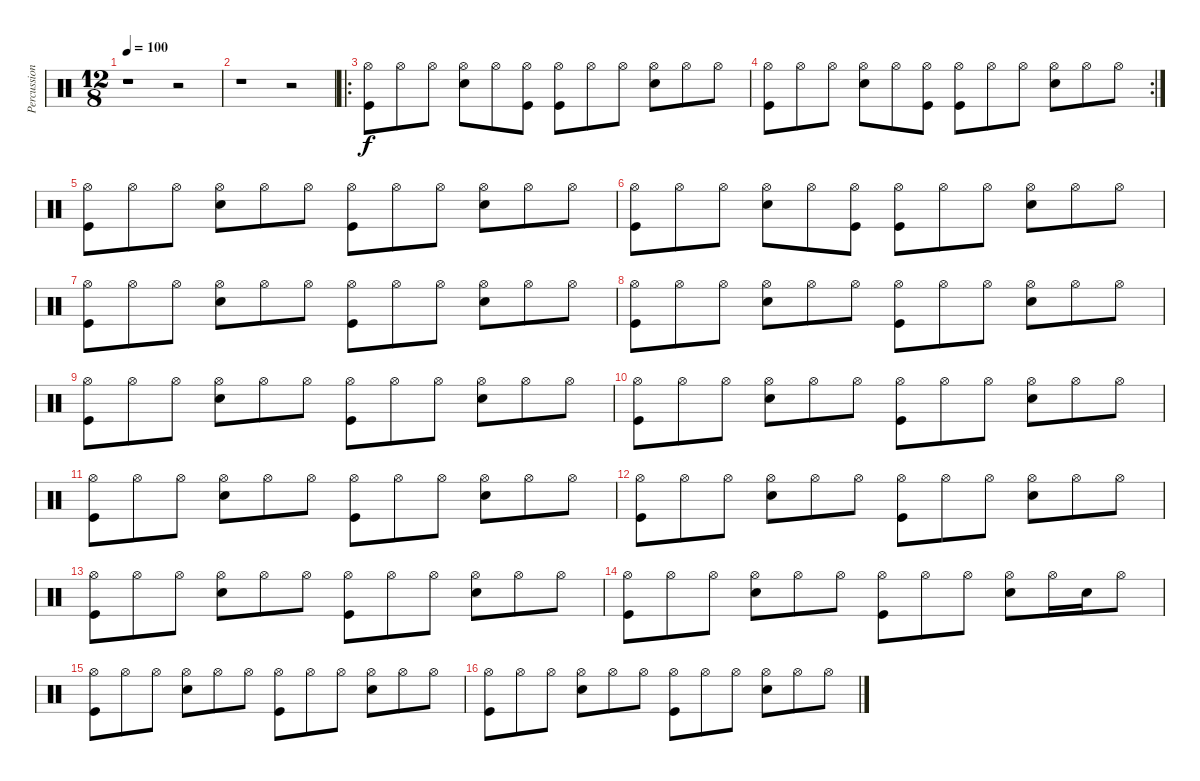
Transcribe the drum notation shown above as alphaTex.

\track ("Percussion" "Percussion") {instrument percussion}
\staff {score}
\articulation defaults
\ts (12 8)
\tempo 100
\clef neutral
\ks c
r.1{dy f} r.2 |
r.1 r.2 |
\ro
("Hi-Hat (open)" "Kick (hit)").8 "Hi-Hat (open)".8 "Hi-Hat (open)".8 ("Hi-Hat (open)" "Snare (hit) 2").8 "Hi-Hat (open)".8 ("Hi-Hat (open)" "Kick (hit)").8 ("Hi-Hat (open)" "Kick (hit)").8 "Hi-Hat (open)".8 "Hi-Hat (open)".8 ("Hi-Hat (open)" "Snare (hit) 2").8 "Hi-Hat (open)".8 "Hi-Hat (open)".8 |
\rc 2
("Hi-Hat (open)" "Kick (hit)").8 "Hi-Hat (open)".8 "Hi-Hat (open)".8 ("Hi-Hat (open)" "Snare (hit) 2").8 "Hi-Hat (open)".8 ("Hi-Hat (open)" "Kick (hit)").8 ("Hi-Hat (open)" "Kick (hit)").8 "Hi-Hat (open)".8 "Hi-Hat (open)".8 ("Hi-Hat (open)" "Snare (hit) 2").8 "Hi-Hat (open)".8 "Hi-Hat (open)".8 |
("Hi-Hat (open)" "Kick (hit)").8 "Hi-Hat (open)".8 "Hi-Hat (open)".8 ("Hi-Hat (open)" "Snare (hit) 2").8 "Hi-Hat (open)".8 "Hi-Hat (open)".8 ("Hi-Hat (open)" "Kick (hit)").8 "Hi-Hat (open)".8 "Hi-Hat (open)".8 ("Hi-Hat (open)" "Snare (hit) 2").8 "Hi-Hat (open)".8 "Hi-Hat (open)".8 |
("Hi-Hat (open)" "Kick (hit)").8 "Hi-Hat (open)".8 "Hi-Hat (open)".8 ("Hi-Hat (open)" "Snare (hit) 2").8 "Hi-Hat (open)".8 ("Hi-Hat (open)" "Kick (hit)").8 ("Hi-Hat (open)" "Kick (hit)").8 "Hi-Hat (open)".8 "Hi-Hat (open)".8 ("Hi-Hat (open)" "Snare (hit) 2").8 "Hi-Hat (open)".8 "Hi-Hat (open)".8 |
("Hi-Hat (open)" "Kick (hit)").8 "Hi-Hat (open)".8 "Hi-Hat (open)".8 ("Hi-Hat (open)" "Snare (hit) 2").8 "Hi-Hat (open)".8 "Hi-Hat (open)".8 ("Hi-Hat (open)" "Kick (hit)").8 "Hi-Hat (open)".8 "Hi-Hat (open)".8 ("Hi-Hat (open)" "Snare (hit) 2").8 "Hi-Hat (open)".8 "Hi-Hat (open)".8 |
("Hi-Hat (open)" "Kick (hit)").8 "Hi-Hat (open)".8 "Hi-Hat (open)".8 ("Hi-Hat (open)" "Snare (hit) 2").8 "Hi-Hat (open)".8 "Hi-Hat (open)".8 ("Hi-Hat (open)" "Kick (hit)").8 "Hi-Hat (open)".8 "Hi-Hat (open)".8 ("Hi-Hat (open)" "Snare (hit) 2").8 "Hi-Hat (open)".8 "Hi-Hat (open)".8 |
("Hi-Hat (open)" "Kick (hit)").8 "Hi-Hat (open)".8 "Hi-Hat (open)".8 ("Hi-Hat (open)" "Snare (hit) 2").8 "Hi-Hat (open)".8 "Hi-Hat (open)".8 ("Hi-Hat (open)" "Kick (hit)").8 "Hi-Hat (open)".8 "Hi-Hat (open)".8 ("Hi-Hat (open)" "Snare (hit) 2").8 "Hi-Hat (open)".8 "Hi-Hat (open)".8 |
("Hi-Hat (open)" "Kick (hit)").8 "Hi-Hat (open)".8 "Hi-Hat (open)".8 ("Hi-Hat (open)" "Snare (hit) 2").8 "Hi-Hat (open)".8 "Hi-Hat (open)".8 ("Hi-Hat (open)" "Kick (hit)").8 "Hi-Hat (open)".8 "Hi-Hat (open)".8 ("Hi-Hat (open)" "Snare (hit) 2").8 "Hi-Hat (open)".8 "Hi-Hat (open)".8 |
("Hi-Hat (open)" "Kick (hit)").8 "Hi-Hat (open)".8 "Hi-Hat (open)".8 ("Hi-Hat (open)" "Snare (hit) 2").8 "Hi-Hat (open)".8 "Hi-Hat (open)".8 ("Hi-Hat (open)" "Kick (hit)").8 "Hi-Hat (open)".8 "Hi-Hat (open)".8 ("Hi-Hat (open)" "Snare (hit) 2").8 "Hi-Hat (open)".8 "Hi-Hat (open)".8 |
("Hi-Hat (open)" "Kick (hit)").8 "Hi-Hat (open)".8 "Hi-Hat (open)".8 ("Hi-Hat (open)" "Snare (hit) 2").8 "Hi-Hat (open)".8 "Hi-Hat (open)".8 ("Hi-Hat (open)" "Kick (hit)").8 "Hi-Hat (open)".8 "Hi-Hat (open)".8 ("Hi-Hat (open)" "Snare (hit) 2").8 "Hi-Hat (open)".8 "Hi-Hat (open)".8 |
("Hi-Hat (open)" "Kick (hit)").8 "Hi-Hat (open)".8 "Hi-Hat (open)".8 ("Hi-Hat (open)" "Snare (hit) 2").8 "Hi-Hat (open)".8 "Hi-Hat (open)".8 ("Hi-Hat (open)" "Kick (hit)").8 "Hi-Hat (open)".8 "Hi-Hat (open)".8 ("Hi-Hat (open)" "Snare (hit) 2").8 "Hi-Hat (open)".8 "Hi-Hat (open)".8 |
("Hi-Hat (open)" "Kick (hit)").8 "Hi-Hat (open)".8 "Hi-Hat (open)".8 ("Hi-Hat (open)" "Snare (hit) 2").8 "Hi-Hat (open)".8 "Hi-Hat (open)".8 ("Hi-Hat (open)" "Kick (hit)").8 "Hi-Hat (open)".8 "Hi-Hat (open)".8 ("Hi-Hat (open)" "Snare (hit) 2").8 "Hi-Hat (open)".16 "Snare (hit) 2".16 "Hi-Hat (open)".8 |
("Hi-Hat (open)" "Kick (hit)").8 "Hi-Hat (open)".8 "Hi-Hat (open)".8 ("Hi-Hat (open)" "Snare (hit) 2").8 "Hi-Hat (open)".8 "Hi-Hat (open)".8 ("Hi-Hat (open)" "Kick (hit)").8 "Hi-Hat (open)".8 "Hi-Hat (open)".8 ("Hi-Hat (open)" "Snare (hit) 2").8 "Hi-Hat (open)".8 "Hi-Hat (open)".8 |
("Hi-Hat (open)" "Kick (hit)").8 "Hi-Hat (open)".8 "Hi-Hat (open)".8 ("Hi-Hat (open)" "Snare (hit) 2").8 "Hi-Hat (open)".8 "Hi-Hat (open)".8 ("Hi-Hat (open)" "Kick (hit)").8 "Hi-Hat (open)".8 "Hi-Hat (open)".8 ("Hi-Hat (open)" "Snare (hit) 2").8 "Hi-Hat (open)".8 "Hi-Hat (open)".8
